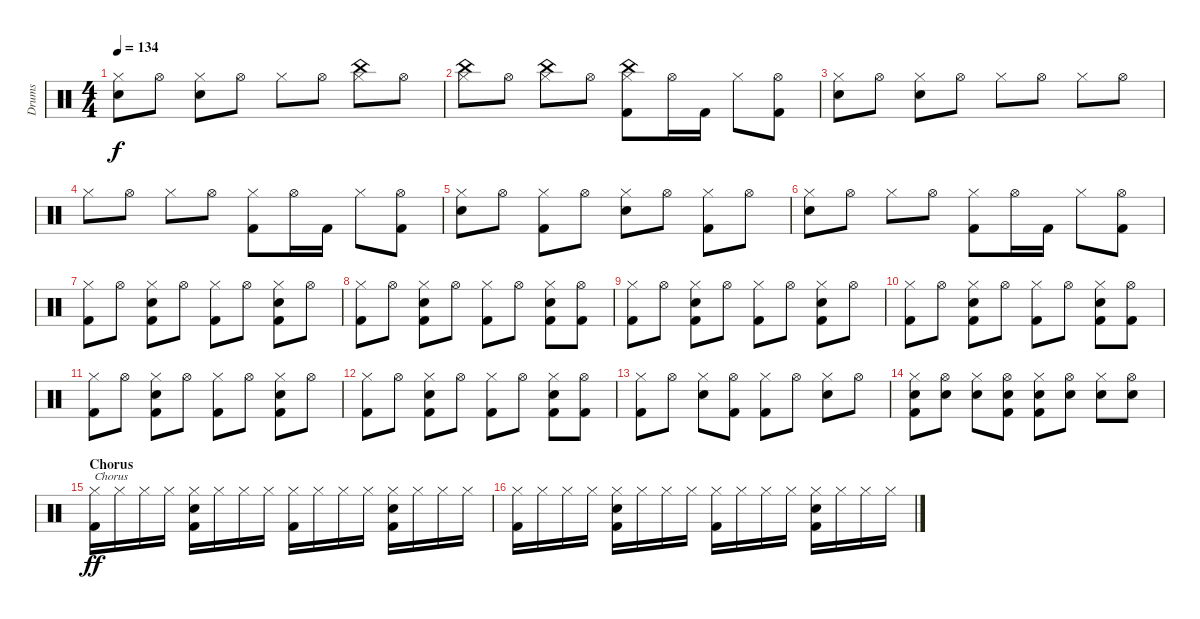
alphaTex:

\track ("Drums" "Drums") {instrument percussion}
\staff {score}
\articulation defaults
\ts (4 4)
\tempo 134
\clef neutral
\ks c
("Hi-Hat (closed)" "Snare (hit) 2").8{dy f} "Hi-Hat (open)".8 ("Hi-Hat (closed)" "Snare (hit) 2").8 "Hi-Hat (open)".8 "Hi-Hat (closed)".8 "Hi-Hat (open)".8 ("China (hit)" "Hi-Hat (closed)").8 "Hi-Hat (open)".8 |
("China (hit)" "Hi-Hat (closed)").8 "Hi-Hat (open)".8 ("China (hit)" "Hi-Hat (closed)").8 "Hi-Hat (open)".8 ("China (hit)" "Hi-Hat (closed)" "Kick (hit) 2").8 "Hi-Hat (open)".16 "Kick (hit) 2".16 "Hi-Hat (closed)".8 ("Hi-Hat (open)" "Kick (hit) 2").8 |
("Hi-Hat (closed)" "Snare (hit) 2").8 "Hi-Hat (open)".8 ("Hi-Hat (closed)" "Snare (hit) 2").8 "Hi-Hat (open)".8 "Hi-Hat (closed)".8 "Hi-Hat (open)".8 "Hi-Hat (closed)".8 "Hi-Hat (open)".8 |
"Hi-Hat (closed)".8 "Hi-Hat (open)".8 "Hi-Hat (closed)".8 "Hi-Hat (open)".8 ("Hi-Hat (closed)" "Kick (hit) 2").8 "Hi-Hat (open)".16 "Kick (hit) 2".16 "Hi-Hat (closed)".8 ("Hi-Hat (open)" "Kick (hit) 2").8 |
("Hi-Hat (closed)" "Snare (hit) 2").8 "Hi-Hat (open)".8 ("Hi-Hat (closed)" "Kick (hit) 2").8 "Hi-Hat (open)".8 ("Hi-Hat (closed)" "Snare (hit) 2").8 "Hi-Hat (open)".8 ("Hi-Hat (closed)" "Kick (hit) 2").8 "Hi-Hat (open)".8 |
("Hi-Hat (closed)" "Snare (hit) 2").8 "Hi-Hat (open)".8 "Hi-Hat (closed)".8 "Hi-Hat (open)".8 ("Hi-Hat (closed)" "Kick (hit) 2").8 "Hi-Hat (open)".16 "Kick (hit) 2".16 "Hi-Hat (closed)".8 ("Hi-Hat (open)" "Kick (hit) 2").8 |
("Hi-Hat (closed)" "Kick (hit) 2").8 "Hi-Hat (open)".8 ("Hi-Hat (closed)" "Snare (hit) 2" "Kick (hit) 2").8 "Hi-Hat (open)".8 ("Hi-Hat (closed)" "Kick (hit) 2").8 "Hi-Hat (open)".8 ("Hi-Hat (closed)" "Snare (hit) 2" "Kick (hit) 2").8 "Hi-Hat (open)".8 |
("Hi-Hat (closed)" "Kick (hit) 2").8 "Hi-Hat (open)".8 ("Hi-Hat (closed)" "Snare (hit) 2" "Kick (hit) 2").8 "Hi-Hat (open)".8 ("Hi-Hat (closed)" "Kick (hit) 2").8 "Hi-Hat (open)".8 ("Hi-Hat (closed)" "Snare (hit) 2" "Kick (hit) 2").8 ("Hi-Hat (open)" "Kick (hit) 2").8 |
("Hi-Hat (closed)" "Kick (hit) 2").8 "Hi-Hat (open)".8 ("Hi-Hat (closed)" "Snare (hit) 2" "Kick (hit) 2").8 "Hi-Hat (open)".8 ("Hi-Hat (closed)" "Kick (hit) 2").8 "Hi-Hat (open)".8 ("Hi-Hat (closed)" "Snare (hit) 2" "Kick (hit) 2").8 "Hi-Hat (open)".8 |
("Hi-Hat (closed)" "Kick (hit) 2").8 "Hi-Hat (open)".8 ("Hi-Hat (closed)" "Snare (hit) 2" "Kick (hit) 2").8 "Hi-Hat (open)".8 ("Hi-Hat (closed)" "Kick (hit) 2").8 "Hi-Hat (open)".8 ("Hi-Hat (closed)" "Snare (hit) 2" "Kick (hit) 2").8 ("Hi-Hat (open)" "Kick (hit) 2").8 |
("Hi-Hat (closed)" "Kick (hit) 2").8 "Hi-Hat (open)".8 ("Hi-Hat (closed)" "Snare (hit) 2" "Kick (hit) 2").8 "Hi-Hat (open)".8 ("Hi-Hat (closed)" "Kick (hit) 2").8 "Hi-Hat (open)".8 ("Hi-Hat (closed)" "Snare (hit) 2" "Kick (hit) 2").8 "Hi-Hat (open)".8 |
("Hi-Hat (closed)" "Kick (hit) 2").8 "Hi-Hat (open)".8 ("Hi-Hat (closed)" "Snare (hit) 2" "Kick (hit) 2").8 "Hi-Hat (open)".8 ("Hi-Hat (closed)" "Kick (hit) 2").8 "Hi-Hat (open)".8 ("Hi-Hat (closed)" "Snare (hit) 2" "Kick (hit) 2").8 ("Hi-Hat (open)" "Kick (hit) 2").8 |
("Hi-Hat (closed)" "Kick (hit) 2").8 "Hi-Hat (open)".8 ("Hi-Hat (closed)" "Snare (hit) 2").8 ("Hi-Hat (open)" "Kick (hit) 2").8 ("Hi-Hat (closed)" "Kick (hit) 2").8 "Hi-Hat (open)".8 ("Hi-Hat (closed)" "Snare (hit) 2").8 "Hi-Hat (open)".8 |
("Hi-Hat (closed)" "Snare (hit) 2" "Kick (hit) 2").8 ("Hi-Hat (open)" "Snare (hit) 2").8 ("Hi-Hat (closed)" "Snare (hit) 2").8 ("Hi-Hat (open)" "Snare (hit) 2" "Kick (hit) 2").8 ("Hi-Hat (closed)" "Snare (hit) 2" "Kick (hit) 2").8 ("Hi-Hat (open)" "Snare (hit) 2").8 ("Hi-Hat (closed)" "Snare (hit) 2").8 ("Hi-Hat (open)" "Snare (hit) 2").8 |
\section ("" "Chorus")
("Hi-Hat (closed)" "Kick (hit) 2").16{txt "Chorus" dy ff} "Hi-Hat (closed)".16 "Hi-Hat (closed)".16 "Hi-Hat (closed)".16 ("Hi-Hat (closed)" "Snare (hit) 2" "Kick (hit) 2").16 "Hi-Hat (closed)".16 "Hi-Hat (closed)".16 "Hi-Hat (closed)".16 ("Hi-Hat (closed)" "Kick (hit) 2").16 "Hi-Hat (closed)".16 "Hi-Hat (closed)".16 "Hi-Hat (closed)".16 ("Hi-Hat (closed)" "Snare (hit) 2" "Kick (hit) 2").16 "Hi-Hat (closed)".16 "Hi-Hat (closed)".16 "Hi-Hat (closed)".16 |
("Hi-Hat (closed)" "Kick (hit) 2").16 "Hi-Hat (closed)".16 "Hi-Hat (closed)".16 "Hi-Hat (closed)".16 ("Hi-Hat (closed)" "Snare (hit) 2" "Kick (hit) 2").16 "Hi-Hat (closed)".16 "Hi-Hat (closed)".16 "Hi-Hat (closed)".16 ("Hi-Hat (closed)" "Kick (hit) 2").16 "Hi-Hat (closed)".16 "Hi-Hat (closed)".16 "Hi-Hat (closed)".16 ("Hi-Hat (closed)" "Snare (hit) 2" "Kick (hit) 2").16 "Hi-Hat (closed)".16 "Hi-Hat (closed)".16 "Hi-Hat (closed)".16
